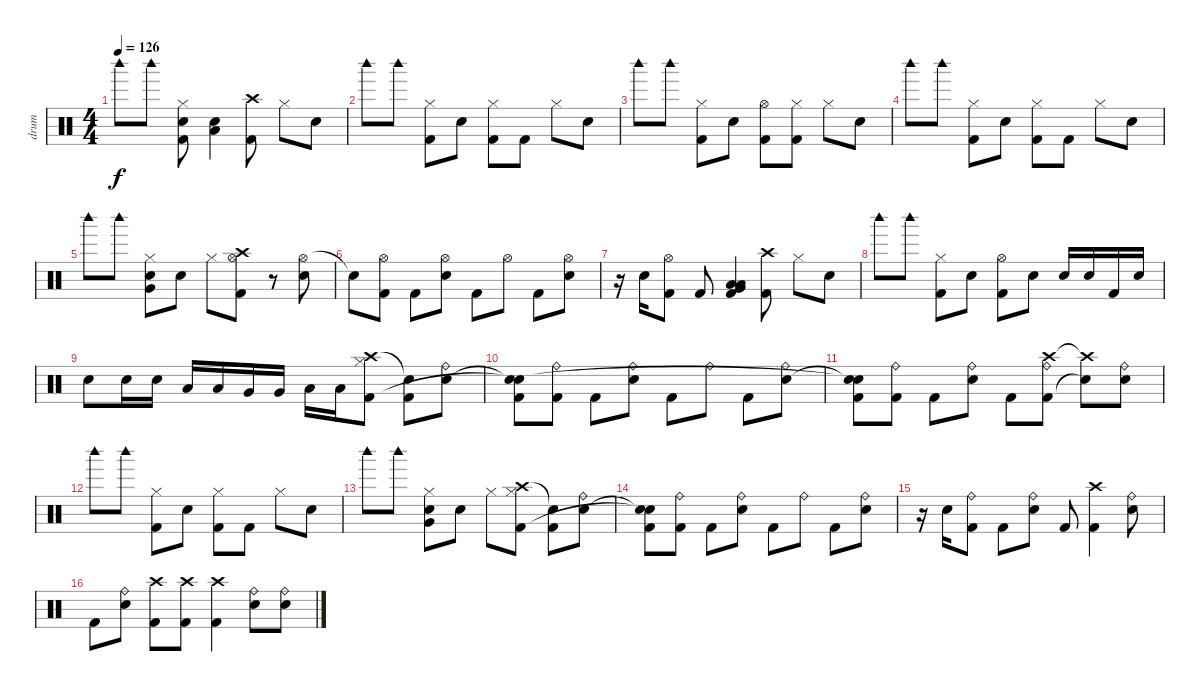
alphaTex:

\track ("drum" "drum") {instrument percussion}
\staff {score}
\articulation defaults
\ts (4 4)
\tempo 126
\clef neutral
\ks c "Woodblock high (hit)".8{dy f} "Woodblock high (hit)".8
("Hi-Hat (closed)" "Snare (hit) 2" "Kick (hit) 2").8 ("Snare (hit) 2" "Low Floor Tom (hit)").4 ("Crash high (hit)" "Kick (hit) 2").8 "Hi-Hat (closed)".8 "Snare (hit) 2".8 |
"Woodblock high (hit)".8 "Woodblock high (hit)".8 ("Hi-Hat (closed)" "Kick (hit) 2").8 "Snare (hit) 2".8 ("Hi-Hat (closed)" "Kick (hit) 2").8 "Kick (hit) 2".8 "Hi-Hat (closed)".8 "Snare (hit) 2".8 |
"Woodblock high (hit)".8 "Woodblock high (hit)".8 ("Hi-Hat (closed)" "Kick (hit) 2").8 "Snare (hit) 2".8 ("Hi-Hat (open)" "Kick (hit) 2").8 ("Hi-Hat (closed)" "Kick (hit) 2").8 "Hi-Hat (closed)".8 "Snare (hit) 2".8 |
"Woodblock high (hit)".8 "Woodblock high (hit)".8 ("Hi-Hat (closed)" "Kick (hit) 2").8 "Snare (hit) 2".8 ("Hi-Hat (closed)" "Kick (hit) 2").8 "Kick (hit) 2".8 "Hi-Hat (closed)".8 "Snare (hit) 2".8 |
"Woodblock high (hit)".8 "Woodblock high (hit)".8 ("Hi-Hat (closed)" "Snare (hit) 2" "Very Low Tom (hit)").8 "Snare (hit) 2".8 "Hi-Hat (closed)".8 ("Crash high (hit)" "Hi-Hat (open)" "Kick (hit) 2").8 r.8 ("Hi-Hat (open)" "Snare (hit) 2").8 |
"Snare (hit)"{t}.8 ("Hi-Hat (open)" "Kick (hit) 2").8 "Kick (hit) 2".8 ("Hi-Hat (open)" "Snare (hit) 2").8 "Kick (hit) 2".8 "Hi-Hat (open)".8 "Kick (hit) 2".8 ("Hi-Hat (open)" "Snare (hit) 2").8 |
r.16 "Snare (hit) 2".16 ("Hi-Hat (open)" "Kick (hit) 2").8 "Kick (hit) 2".8 ("Very Low Tom (hit)" "Low Tom (hit)" "Low Floor Tom (hit)" "Kick (hit) 2").4 ("Crash high (hit)" "Kick (hit) 2").8 "Hi-Hat (closed)".8 "Snare (hit) 2".8 |
"Woodblock high (hit)".8 "Woodblock high (hit)".8 ("Hi-Hat (closed)" "Kick (hit) 2").8 "Snare (hit) 2".8 ("Hi-Hat (open)" "Kick (hit) 2").8 "Snare (hit) 2".8 "Snare (hit) 2".16 "Snare (hit) 2".16 "Kick (hit) 2".16 "Snare (hit) 2".16 |
"Snare (hit) 2".8 "Snare (hit) 2".16 "Snare (hit) 2".16 "Low Tom (hit)".16 "Low Tom (hit)".16 "Very Low Tom (hit)".16 "Very Low Tom (hit)".16 "Low Floor Tom (hit)".16 "Low Floor Tom (hit)".16 ("Crash high (hit)" "Hi-Hat (closed)" "Kick (hit) 2").8 ("Snare (hit)"{t} "Kick (hit) 2").8 ("Snare (hit) 2" "Ride (bell)").8 |
("Snare (hit)"{t} "Kick (hit) 2" "Snare (hit)"{t}).8 ("Kick (hit) 2" "Ride (bell)").8 "Kick (hit) 2".8 ("Snare (hit) 2" "Ride (bell)").8 "Kick (hit) 2".8 "Ride (bell)".8 "Kick (hit) 2".8 ("Snare (hit) 2" "Ride (bell)").8 |
("Snare (hit)"{t} "Kick (hit) 2" "Snare (hit)"{t}).8 ("Kick (hit) 2" "Ride (bell)").8 "Kick (hit) 2".8 ("Snare (hit) 2" "Ride (bell)").8 "Kick (hit) 2".8 ("Crash high (hit)" "Kick (hit) 2" "Ride (bell)").8 ("Crash high (hit)"{t} "Snare (hit)"{t}).8 ("Snare (hit) 2" "Ride (bell)").8 |
"Woodblock high (hit)".8 "Woodblock high (hit)".8 ("Hi-Hat (closed)" "Kick (hit) 2").8 "Snare (hit) 2".8 ("Hi-Hat (closed)" "Kick (hit) 2").8 "Kick (hit) 2".8 "Hi-Hat (closed)".8 "Snare (hit) 2".8 |
"Woodblock high (hit)".8 "Woodblock high (hit)".8 ("Hi-Hat (closed)" "Snare (hit) 2" "Very Low Tom (hit)").8 "Snare (hit) 2".8 "Hi-Hat (closed)".8 ("Crash high (hit)" "Hi-Hat (closed)" "Kick (hit) 2").8 ("Snare (hit)"{t} "Kick (hit) 2").8 ("Snare (hit) 2" "Ride (bell)").8 |
("Snare (hit)"{t} "Kick (hit) 2" "Snare (hit)"{t}).8 ("Kick (hit) 2" "Ride (bell)").8 "Kick (hit) 2".8 ("Snare (hit) 2" "Ride (bell)").8 "Kick (hit) 2".8 "Ride (bell)".8 "Kick (hit) 2".8 ("Snare (hit) 2" "Ride (bell)").8 |
r.16 "Snare (hit) 2".16 ("Kick (hit) 2" "Ride (bell)").8 "Kick (hit) 2".8 ("Snare (hit) 2" "Ride (bell)").8 "Kick (hit) 2".8 ("Crash high (hit)" "Kick (hit) 2").4 ("Snare (hit) 2" "Ride (bell)").8 |
"Kick (hit) 2".8 ("Snare (hit) 2" "Ride (bell)").8 ("Crash high (hit)" "Kick (hit) 2").8 ("Crash high (hit)" "Kick (hit) 2").8 ("Crash high (hit)" "Kick (hit) 2").4 ("Snare (hit) 2" "Ride (bell)").8 ("Snare (hit) 2" "Ride (bell)").8
